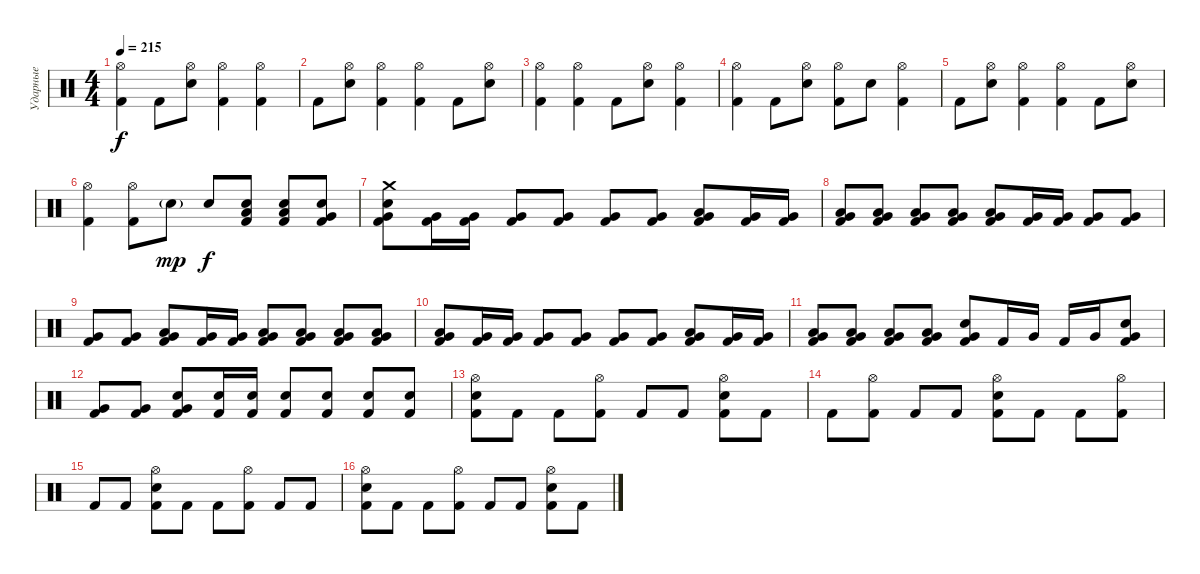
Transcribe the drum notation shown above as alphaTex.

\track ("Ударные" "Ударные") {instrument percussion}
\staff {score}
\articulation defaults
\ts (4 4)
\tempo 215
\clef neutral
\ks c
("Hi-Hat (open)" "Kick (hit) 2").4{dy f} "Kick (hit) 2".8 ("Hi-Hat (open)" "Snare (hit) 2").8 ("Hi-Hat (open)" "Kick (hit) 2").4 ("Hi-Hat (open)" "Kick (hit) 2").4 |
"Kick (hit) 2".8 ("Hi-Hat (open)" "Snare (hit) 2").8 ("Hi-Hat (open)" "Kick (hit) 2").4 ("Hi-Hat (open)" "Kick (hit) 2").4 "Kick (hit) 2".8 ("Hi-Hat (open)" "Snare (hit) 2").8 |
("Hi-Hat (open)" "Kick (hit) 2").4 ("Hi-Hat (open)" "Kick (hit) 2").4 "Kick (hit) 2".8 ("Hi-Hat (open)" "Snare (hit) 2").8 ("Hi-Hat (open)" "Kick (hit) 2").4 |
("Hi-Hat (open)" "Kick (hit) 2").4 "Kick (hit) 2".8 ("Hi-Hat (open)" "Snare (hit) 2").8 ("Hi-Hat (open)" "Kick (hit) 2").8 "Snare (hit) 2".8 ("Hi-Hat (open)" "Kick (hit) 2").4 |
"Kick (hit) 2".8 ("Hi-Hat (open)" "Snare (hit) 2").8 ("Hi-Hat (open)" "Kick (hit) 2").4 ("Hi-Hat (open)" "Kick (hit) 2").4 "Kick (hit) 2".8 ("Hi-Hat (open)" "Snare (hit) 2").8 |
("Hi-Hat (open)" "Kick (hit) 2").4 ("Hi-Hat (open)" "Kick (hit) 2").8 "Snare (hit) 2"{g}.8{dy mp} "Snare (hit) 2".8{dy f} ("Low Floor Tom (hit)" "Snare (hit) 2" "Kick (hit) 2").8 ("Low Floor Tom (hit)" "Snare (hit) 2" "Kick (hit) 2").8 ("Very Low Tom (hit)" "Snare (hit) 2" "Kick (hit) 2").8 |
("Crash medium (hit)" "Snare (hit) 2" "Very Low Tom (hit)" "Kick (hit) 2").8 ("Very Low Tom (hit)" "Kick (hit) 2").16 ("Very Low Tom (hit)" "Kick (hit) 2").16 ("Very Low Tom (hit)" "Kick (hit) 2").8 ("Very Low Tom (hit)" "Kick (hit) 2").8 ("Very Low Tom (hit)" "Kick (hit) 2").8 ("Very Low Tom (hit)" "Kick (hit) 2").8 ("Low Floor Tom (hit)" "Very Low Tom (hit)" "Kick (hit) 2").8 ("Very Low Tom (hit)" "Kick (hit) 2").16 ("Very Low Tom (hit)" "Kick (hit) 2").16 |
("Low Floor Tom (hit)" "Very Low Tom (hit)" "Kick (hit) 2").8 ("Low Floor Tom (hit)" "Very Low Tom (hit)" "Kick (hit) 2").8 ("Low Floor Tom (hit)" "Very Low Tom (hit)" "Kick (hit) 2").8 ("Low Floor Tom (hit)" "Very Low Tom (hit)" "Kick (hit) 2").8 ("Low Floor Tom (hit)" "Very Low Tom (hit)" "Kick (hit) 2").8 ("Very Low Tom (hit)" "Kick (hit) 2").16 ("Very Low Tom (hit)" "Kick (hit) 2").16 ("Very Low Tom (hit)" "Kick (hit) 2").8 ("Very Low Tom (hit)" "Kick (hit) 2").8 |
("Very Low Tom (hit)" "Kick (hit) 2").8 ("Very Low Tom (hit)" "Kick (hit) 2").8 ("Low Floor Tom (hit)" "Very Low Tom (hit)" "Kick (hit) 2").8 ("Very Low Tom (hit)" "Kick (hit) 2").16 ("Very Low Tom (hit)" "Kick (hit) 2").16 ("Low Floor Tom (hit)" "Very Low Tom (hit)" "Kick (hit) 2").8 ("Low Floor Tom (hit)" "Very Low Tom (hit)" "Kick (hit) 2").8 ("Low Floor Tom (hit)" "Very Low Tom (hit)" "Kick (hit) 2").8 ("Low Floor Tom (hit)" "Very Low Tom (hit)" "Kick (hit) 2").8 |
("Low Floor Tom (hit)" "Very Low Tom (hit)" "Kick (hit) 2").8 ("Very Low Tom (hit)" "Kick (hit) 2").16 ("Very Low Tom (hit)" "Kick (hit) 2").16 ("Very Low Tom (hit)" "Kick (hit) 2").8 ("Very Low Tom (hit)" "Kick (hit) 2").8 ("Very Low Tom (hit)" "Kick (hit) 2").8 ("Very Low Tom (hit)" "Kick (hit) 2").8 ("Low Floor Tom (hit)" "Very Low Tom (hit)" "Kick (hit) 2").8 ("Very Low Tom (hit)" "Kick (hit) 2").16 ("Very Low Tom (hit)" "Kick (hit) 2").16 |
("Low Floor Tom (hit)" "Very Low Tom (hit)" "Kick (hit) 2").8 ("Low Floor Tom (hit)" "Very Low Tom (hit)" "Kick (hit) 2").8 ("Low Floor Tom (hit)" "Very Low Tom (hit)" "Kick (hit) 2").8 ("Low Floor Tom (hit)" "Very Low Tom (hit)" "Kick (hit) 2").8 ("Snare (hit) 2" "Very Low Tom (hit)" "Kick (hit) 2").8 "Kick (hit) 2".16 "Very Low Tom (hit)".16 "Kick (hit) 2".16 "Very Low Tom (hit)".16 ("Snare (hit) 2" "Very Low Tom (hit)" "Kick (hit) 2").8 |
("Very Low Tom (hit)" "Kick (hit) 2").8 ("Very Low Tom (hit)" "Kick (hit) 2").8 ("Snare (hit) 2" "Very Low Tom (hit)" "Kick (hit) 2").8 ("Snare (hit) 2" "Kick (hit) 2").16 ("Snare (hit) 2" "Kick (hit) 2").16 ("Snare (hit) 2" "Kick (hit) 2").8 ("Snare (hit) 2" "Kick (hit) 2").8 ("Snare (hit) 2" "Kick (hit) 2").8 ("Snare (hit) 2" "Kick (hit) 2").8 |
("Hi-Hat (open)" "Snare (hit) 2" "Kick (hit) 2").8 "Kick (hit) 2".8 "Kick (hit) 2".8 ("Hi-Hat (open)" "Kick (hit) 2").8 "Kick (hit) 2".8 "Kick (hit) 2".8 ("Hi-Hat (open)" "Snare (hit) 2" "Kick (hit) 2").8 "Kick (hit) 2".8 |
"Kick (hit) 2".8 ("Hi-Hat (open)" "Kick (hit) 2").8 "Kick (hit) 2".8 "Kick (hit) 2".8 ("Hi-Hat (open)" "Snare (hit) 2" "Kick (hit) 2").8 "Kick (hit) 2".8 "Kick (hit) 2".8 ("Hi-Hat (open)" "Kick (hit) 2").8 |
"Kick (hit) 2".8 "Kick (hit) 2".8 ("Hi-Hat (open)" "Snare (hit) 2" "Kick (hit) 2").8 "Kick (hit) 2".8 "Kick (hit) 2".8 ("Hi-Hat (open)" "Kick (hit) 2").8 "Kick (hit) 2".8 "Kick (hit) 2".8 |
("Hi-Hat (open)" "Snare (hit) 2" "Kick (hit) 2").8 "Kick (hit) 2".8 "Kick (hit) 2".8 ("Hi-Hat (open)" "Kick (hit) 2").8 "Kick (hit) 2".8 "Kick (hit) 2".8 ("Hi-Hat (open)" "Snare (hit) 2" "Kick (hit) 2").8 "Kick (hit) 2".8
